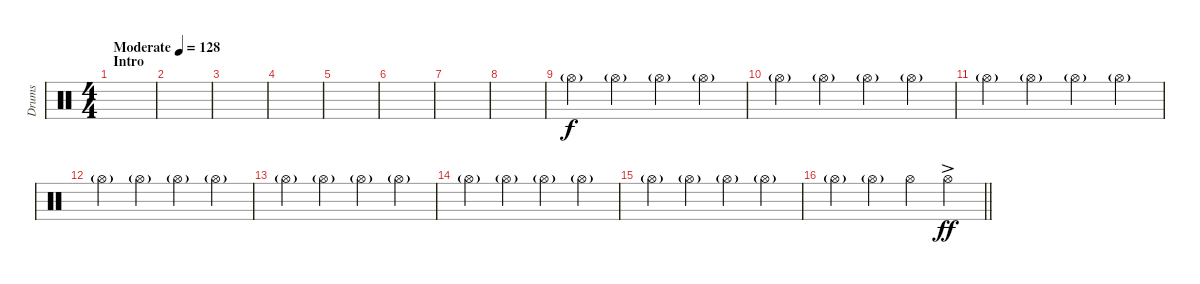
\track ("Drums" "Drums") {instrument percussion}
\staff {score}
\articulation defaults
\ts (4 4)
\section ("" "Intro")
\tempo (128 "Moderate")
\clef neutral
\ks c
|
|
|
|
|
|
|
|
"Hi-Hat (open)"{g}.4 "Hi-Hat (open)"{g}.4 "Hi-Hat (open)"{g}.4 "Hi-Hat (open)"{g}.4 |
"Hi-Hat (open)"{g}.4 "Hi-Hat (open)"{g}.4 "Hi-Hat (open)"{g}.4 "Hi-Hat (open)"{g}.4 |
"Hi-Hat (open)"{g}.4 "Hi-Hat (open)"{g}.4 "Hi-Hat (open)"{g}.4 "Hi-Hat (open)"{g}.4 |
"Hi-Hat (open)"{g}.4 "Hi-Hat (open)"{g}.4 "Hi-Hat (open)"{g}.4 "Hi-Hat (open)"{g}.4 |
"Hi-Hat (open)"{g}.4 "Hi-Hat (open)"{g}.4 "Hi-Hat (open)"{g}.4 "Hi-Hat (open)"{g}.4 |
"Hi-Hat (open)"{g}.4 "Hi-Hat (open)"{g}.4 "Hi-Hat (open)"{g}.4 "Hi-Hat (open)"{g}.4 |
"Hi-Hat (open)"{g}.4 "Hi-Hat (open)"{g}.4 "Hi-Hat (open)"{g}.4 "Hi-Hat (open)"{g}.4 |
\barLineRight lightlight "Hi-Hat (open)"{g}.4 "Hi-Hat (open)"{g}.4 "Hi-Hat (open)".4{dy f} "Hi-Hat (open)"{ac}.4{dy ff}
